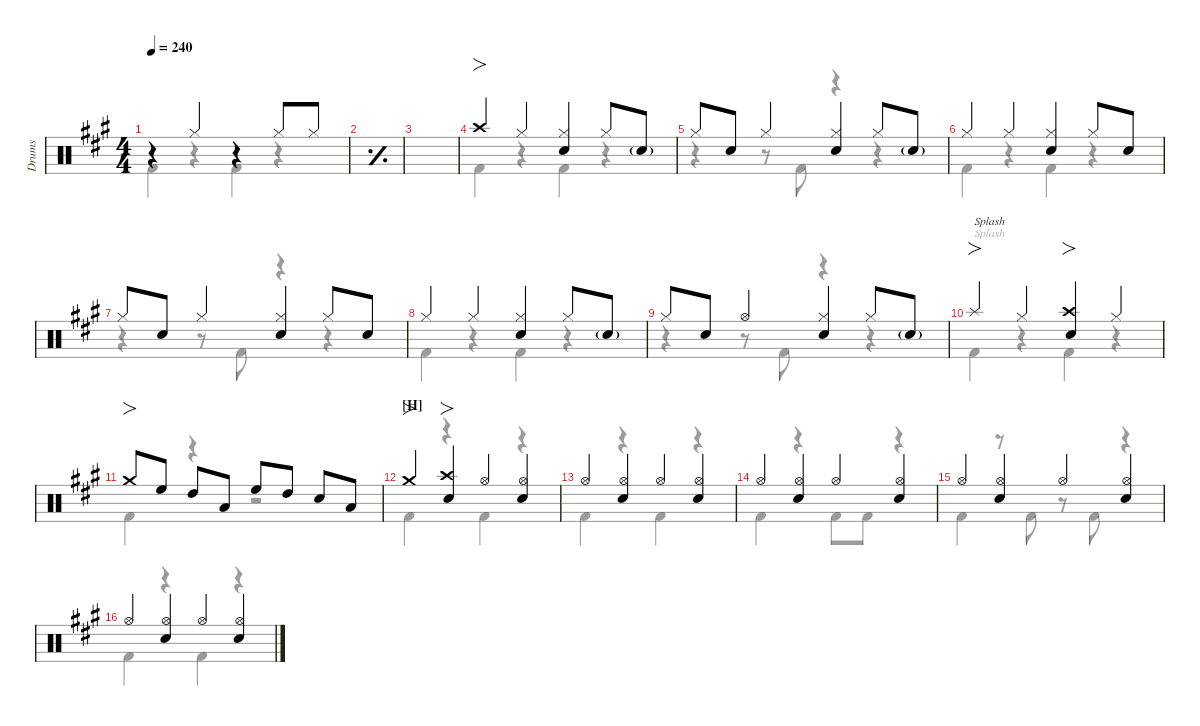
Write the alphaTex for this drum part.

\defaultSystemsLayout 4
\hideDynamics
\bracketExtendMode nobrackets
\otherSystemsTrackNameOrientation horizontal
\track ("Drums" "Drums") {defaultSystemsLayout 4 instrument percussion}
\staff {score}
\articulation defaults
\voice
\ts (4 4)
\tempo 240
\clef neutral
\scale
0.976526
\ks a
r.4{dy mf beam Up} "Hi-Hat (closed)"{acc forcenatural}.4{dy f beam Up} r.4{beam Up} "Hi-Hat (closed)"{acc forcenatural}.8{beam Up} "Hi-Hat (closed)"{acc forcenatural}.8{dy mf beam Up} |
\simile simple
\scale
0.976526 |
\scale
0.976526 |
\simile none
\scale
1.07042 "Crash high (hit)"{acc forcenatural}.4{fo dy f beam Up} "Hi-Hat (closed)"{acc forcenatural}.4{beam Up} ("Snare (hit) 2"{acc forcenatural} "Hi-Hat (closed)"{acc forcenatural}).4{beam Up} "Hi-Hat (closed)"{acc forcenatural}.8{beam Up} "Snare (hit) 2"{g acc forcenatural}.8{dy mf beam Up} |
\scale
0.976526 "Hi-Hat (closed)"{acc forcenatural}.8{dy f beam Up} "Snare (hit) 2"{acc forcenatural}.8{beam Up} "Hi-Hat (closed)"{acc forcenatural}.4{beam Up} ("Snare (hit) 2"{acc forcenatural} "Hi-Hat (closed)"{acc forcenatural}).4{beam Up} "Hi-Hat (closed)"{acc forcenatural}.8{beam Up} "Snare (hit) 2"{g acc forcenatural}.8{dy mf beam Up} |
\scale
0.976526 "Hi-Hat (closed)"{acc forcenatural}.4{dy f beam Up} "Hi-Hat (closed)"{acc forcenatural}.4{beam Up} ("Snare (hit) 2"{acc forcenatural} "Hi-Hat (closed)"{acc forcenatural}).4{beam Up} "Hi-Hat (closed)"{acc forcenatural}.8{beam Up} "Snare (hit) 2"{acc forcenatural}.8{beam Up} |
\scale
0.976526 "Hi-Hat (closed)"{acc forcenatural}.8{beam Up} "Snare (hit) 2"{acc forcenatural}.8{beam Up} "Hi-Hat (closed)"{acc forcenatural}.4{beam Up} ("Snare (hit) 2"{acc forcenatural} "Hi-Hat (closed)"{acc forcenatural}).4{beam Up} "Hi-Hat (closed)"{acc forcenatural}.8{beam Up} "Snare (hit) 2"{acc forcenatural}.8{beam Up} |
\scale
1.066 "Hi-Hat (closed)"{acc forcenatural}.4{beam Up} "Hi-Hat (closed)"{acc forcenatural}.4{beam Up} ("Snare (hit) 2"{acc forcenatural} "Hi-Hat (closed)"{acc forcenatural}).4{beam Up} "Hi-Hat (closed)"{acc forcenatural}.8{beam Up} "Snare (hit) 2"{g acc forcenatural}.8{dy mf beam Up} |
\scale
0.972105 "Hi-Hat (closed)"{acc forcenatural}.8{dy f beam Up} "Snare (hit) 2"{acc forcenatural}.8{beam Up} "Hi-Hat (open)"{acc forcenatural}.4{beam Up} ("Hi-Hat (closed)"{acc forcenatural} "Snare (hit) 2"{acc forcenatural}).4{beam Up} "Hi-Hat (closed)"{acc forcenatural}.8{beam Up} "Snare (hit) 2"{g acc forcenatural}.8{dy mf beam Up} |
\scale
0.972105 "Splash (hit)"{acc forcenatural}.4{fo txt "Splash" dy f beam Up} "Hi-Hat (closed)"{acc forcenatural}.4{beam Up} ("Crash high (hit)"{acc forcenatural} "Snare (hit) 2"{acc forcenatural}).4{fo beam Up} "Hi-Hat (closed)"{acc forcenatural}.4{beam Up} |
\scale
0.98979 "Crash medium (hit)"{acc forcenatural}.8{fo beam Up} "High Floor Tom (hit)"{acc forcenatural}.8{dy fff beam Up} "High Tom (hit)"{acc forcenatural}.8{beam Up} "Low Tom (hit)"{acc forcenatural}.8{beam Up} "High Floor Tom (hit)"{acc forcenatural}.8{beam Up} "High Tom (hit)"{acc forcenatural}.8{beam Up} "Snare (hit) 2"{acc forcenatural}.8{dy f beam Up} "Low Tom (hit)"{acc forcenatural}.8{dy fff beam Up} |
\section ("H" "")
\scale
1.07042 "Crash medium (hit)"{acc forcenatural}.4{fo dy f beam Up} ("Crash high (hit)"{acc forcenatural} "Snare (hit) 2"{acc forcenatural}).4{fo beam Up} "Hi-Hat (open)"{acc forcenatural}.4{beam Up} ("Hi-Hat (open)"{acc forcenatural} "Snare (hit) 2"{acc forcenatural}).4{beam Up} |
\scale
0.976526 "Hi-Hat (open)"{acc forcenatural}.4{beam Up} ("Hi-Hat (open)"{acc forcenatural} "Snare (hit) 2"{acc forcenatural}).4{beam Up} "Hi-Hat (open)"{acc forcenatural}.4{beam Up} ("Hi-Hat (open)"{acc forcenatural} "Snare (hit) 2"{acc forcenatural}).4{beam Up} |
\scale
0.976526 "Hi-Hat (open)"{acc forcenatural}.4{beam Up} ("Hi-Hat (open)"{acc forcenatural} "Snare (hit) 2"{acc forcenatural}).4{beam Up} "Hi-Hat (open)"{acc forcenatural}.4{beam Up} ("Hi-Hat (open)"{acc forcenatural} "Snare (hit) 2"{acc forcenatural}).4{beam Up} |
\scale
0.976526 "Hi-Hat (open)"{acc forcenatural}.4{beam Up} ("Hi-Hat (open)"{acc forcenatural} "Snare (hit) 2"{acc forcenatural}).4{beam Up} "Hi-Hat (open)"{acc forcenatural}.4{beam Up} ("Hi-Hat (open)"{acc forcenatural} "Snare (hit) 2"{acc forcenatural}).4{beam Up} |
\scale
1.07042 "Hi-Hat (open)"{acc forcenatural}.4{beam Up} ("Hi-Hat (open)"{acc forcenatural} "Snare (hit) 2"{acc forcenatural}).4{beam Up} "Hi-Hat (open)"{acc forcenatural}.4{beam Up} ("Hi-Hat (open)"{acc forcenatural} "Snare (hit) 2"{acc forcenatural}).4{beam Up}
\voice
\clef neutral
\ottava regular
\simile none
\scale
0.976526
\ks a "Kick (hit) 2"{acc forcenatural}.4{dy f beam Down}
r.4{beam Down} "Kick (hit) 2"{acc forcenatural}.4{beam Down} r.4{beam Down} |
\simile simple
\scale
0.976526 |
\scale
0.976526 |
\simile none
\scale
1.07042 "Kick (hit) 2"{acc forcenatural}.4{beam Down} r.4{beam Down} "Kick (hit) 2"{acc forcenatural}.4{beam Down} r.4{beam Down} |
\scale
0.976526 r.4{beam Down} r.8{beam Down} "Kick (hit) 2"{acc forcenatural}.8{beam Down} r.4{beam Down} r.4{beam Down} |
\scale
0.976526 "Kick (hit) 2"{acc forcenatural}.4{beam Down} r.4{beam Down} "Kick (hit) 2"{acc forcenatural}.4{beam Down} r.4{beam Down} |
\scale
0.976526 r.4{beam Down} r.8{beam Down} "Kick (hit) 2"{acc forcenatural}.8{beam Down} r.4{beam Down} r.4{beam Down} |
\scale
1.066 "Kick (hit) 2"{acc forcenatural}.4{beam Down} r.4{beam Down} "Kick (hit) 2"{acc forcenatural}.4{beam Down} r.4{beam Down} |
\scale
0.972105 r.4{beam Down} r.8{beam Down} "Kick (hit) 2"{acc forcenatural}.8{beam Down} r.4{beam Down} r.4{beam Down} |
\scale
0.972105 "Kick (hit) 2"{acc forcenatural}.4{txt "Splash" beam Down} r.4{beam Down} "Kick (hit) 2"{acc forcenatural}.4{beam Down} r.4{beam Down} |
\scale
0.98979 "Kick (hit) 2"{acc forcenatural}.4{beam Down} r.4{beam Down} r.2{beam Down} |
\scale
1.07042 "Kick (hit) 2"{acc forcenatural}.4{beam Down} r.4{beam Down} "Kick (hit) 2"{acc forcenatural}.4{beam Down} r.4{beam Down} |
\scale
0.976526 "Kick (hit) 2"{acc forcenatural}.4{beam Down} r.4{beam Down} "Kick (hit) 2"{acc forcenatural}.4{beam Down} r.4{beam Down} |
\scale
0.976526 "Kick (hit) 2"{acc forcenatural}.4{beam Down} r.4{beam Down} "Kick (hit) 2"{acc forcenatural}.8{beam Down} "Kick (hit) 2"{acc forcenatural}.8{beam Down} r.4{beam Down} |
\scale
0.976526 "Kick (hit) 2"{acc forcenatural}.4{beam Down} r.8{beam Down} "Kick (hit) 2"{acc forcenatural}.8{beam Down} r.8{beam Down} "Kick (hit) 2"{acc forcenatural}.8{beam Down} r.4{beam Down} |
\scale
1.07042 "Kick (hit) 2"{acc forcenatural}.4{beam Down} r.4{beam Down} "Kick (hit) 2"{acc forcenatural}.4{beam Down} r.4{beam Down}
